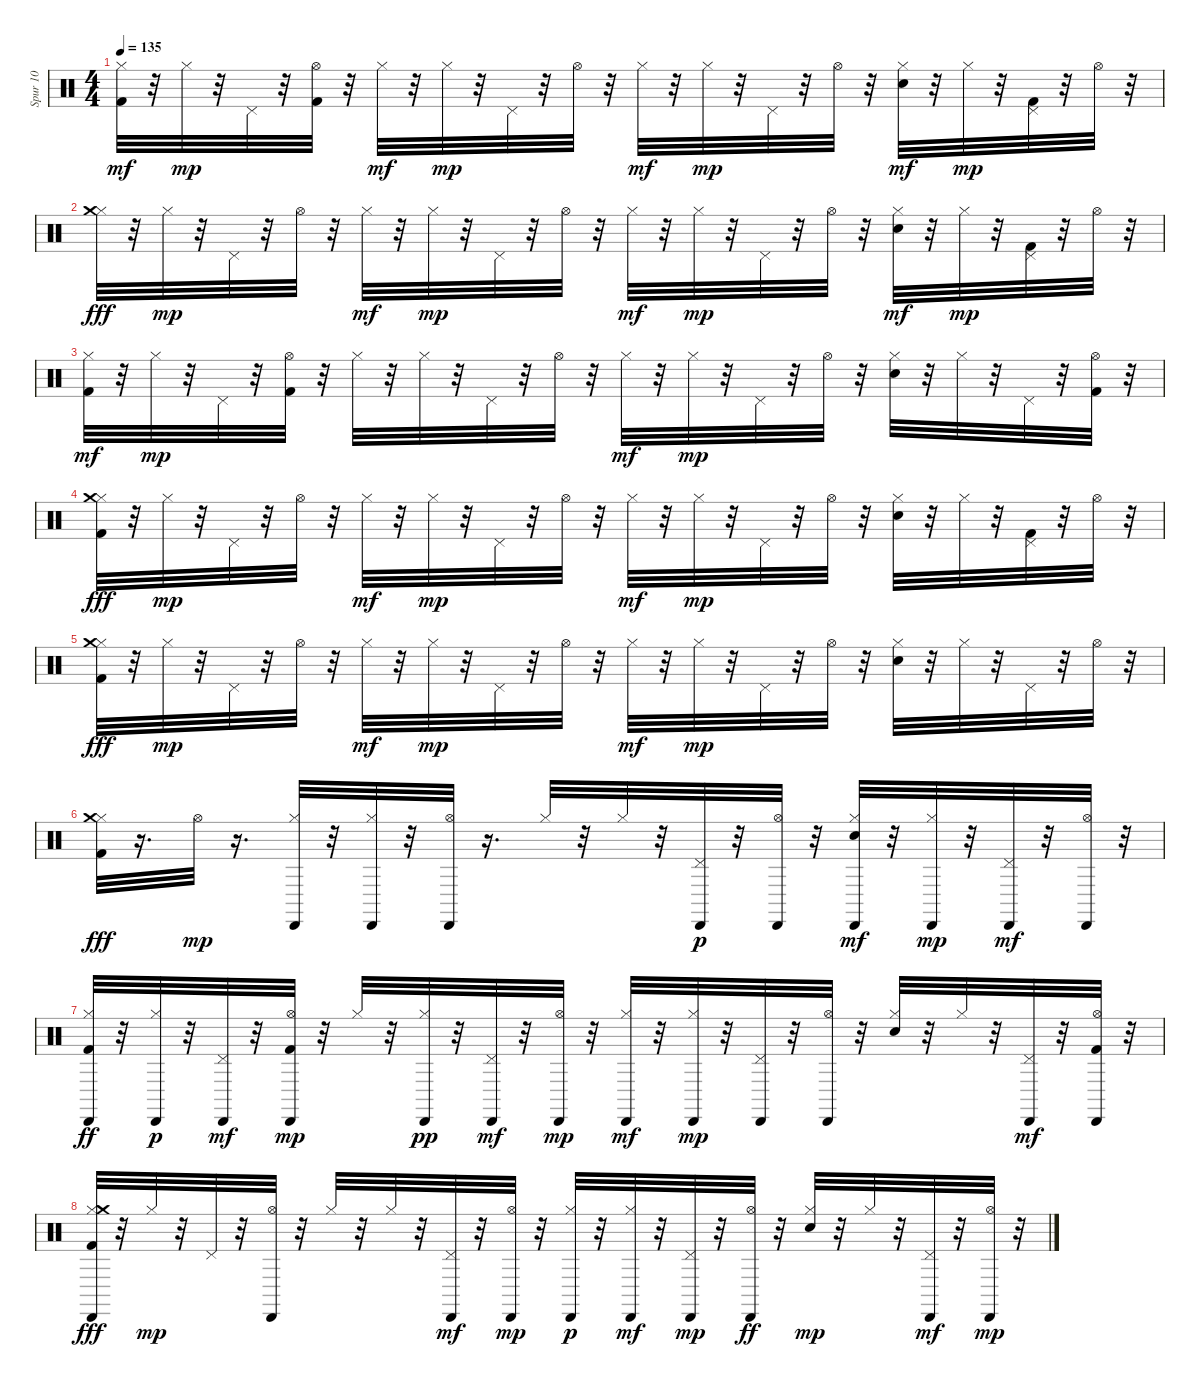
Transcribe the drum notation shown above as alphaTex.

\track ("Spur 10" "Spur 10") {instrument percussion}
\staff {score}
\articulation defaults
\ts (4 4)
\tempo 135
\clef neutral
\ks c
("Kick (hit) 2" "Hi-Hat (closed)").32{dy mf} r.32 "Hi-Hat (closed)".32{dy mp} r.32 "Pedal Hi-Hat (hit)".32 r.32 ("Kick (hit) 2" "Hi-Hat (open)").32 r.32 "Hi-Hat (closed)".32{dy mf} r.32 "Hi-Hat (closed)".32{dy mp} r.32 "Pedal Hi-Hat (hit)".32 r.32 "Hi-Hat (open)".32 r.32 "Hi-Hat (closed)".32{dy mf} r.32 "Hi-Hat (closed)".32{dy mp} r.32 "Pedal Hi-Hat (hit)".32 r.32 "Hi-Hat (open)".32 r.32 ("Hand Clap (hit)" "Hi-Hat (closed)").32{dy mf} r.32 "Hi-Hat (closed)".32{dy mp} r.32 ("Kick (hit) 2" "Pedal Hi-Hat (hit)").32 r.32 "Hi-Hat (open)".32 r.32 |
("Hi-Hat (closed)" "Crash medium (hit)").32{dy fff} r.32 "Hi-Hat (closed)".32{dy mp} r.32 "Pedal Hi-Hat (hit)".32 r.32 "Hi-Hat (open)".32 r.32 "Hi-Hat (closed)".32{dy mf} r.32 "Hi-Hat (closed)".32{dy mp} r.32 "Pedal Hi-Hat (hit)".32 r.32 "Hi-Hat (open)".32 r.32 "Hi-Hat (closed)".32{dy mf} r.32 "Hi-Hat (closed)".32{dy mp} r.32 "Pedal Hi-Hat (hit)".32 r.32 "Hi-Hat (open)".32 r.32 ("Hand Clap (hit)" "Hi-Hat (closed)").32{dy mf} r.32 "Hi-Hat (closed)".32{dy mp} r.32 ("Kick (hit) 2" "Pedal Hi-Hat (hit)").32 r.32 "Hi-Hat (open)".32 r.32 |
("Kick (hit) 2" "Hi-Hat (closed)").32{dy mf} r.32 "Hi-Hat (closed)".32{dy mp} r.32 "Pedal Hi-Hat (hit)".32 r.32 ("Kick (hit) 2" "Hi-Hat (open)").32 r.32 "Hi-Hat (closed)".32 r.32 "Hi-Hat (closed)".32 r.32 "Pedal Hi-Hat (hit)".32 r.32 "Hi-Hat (open)".32 r.32 "Hi-Hat (closed)".32{dy mf} r.32 "Hi-Hat (closed)".32{dy mp} r.32 "Pedal Hi-Hat (hit)".32 r.32 "Hi-Hat (open)".32 r.32 ("Hand Clap (hit)" "Hi-Hat (closed)").32 r.32 "Hi-Hat (closed)".32 r.32 "Pedal Hi-Hat (hit)".32 r.32 ("Kick (hit) 2" "Hi-Hat (open)").32 r.32 |
("Kick (hit) 2" "Hi-Hat (closed)" "Crash medium (hit)").32{dy fff} r.32 "Hi-Hat (closed)".32{dy mp} r.32 "Pedal Hi-Hat (hit)".32 r.32 "Hi-Hat (open)".32 r.32 "Hi-Hat (closed)".32{dy mf} r.32 "Hi-Hat (closed)".32{dy mp} r.32 "Pedal Hi-Hat (hit)".32 r.32 "Hi-Hat (open)".32 r.32 "Hi-Hat (closed)".32{dy mf} r.32 "Hi-Hat (closed)".32{dy mp} r.32 "Pedal Hi-Hat (hit)".32 r.32 "Hi-Hat (open)".32 r.32 ("Hand Clap (hit)" "Hi-Hat (closed)").32 r.32 "Hi-Hat (closed)".32 r.32 ("Kick (hit) 2" "Pedal Hi-Hat (hit)").32 r.32 "Hi-Hat (open)".32 r.32 |
("Kick (hit) 2" "Hi-Hat (closed)" "Crash medium (hit)").32{dy fff} r.32 "Hi-Hat (closed)".32{dy mp} r.32 "Pedal Hi-Hat (hit)".32 r.32 "Hi-Hat (open)".32 r.32 "Hi-Hat (closed)".32{dy mf} r.32 "Hi-Hat (closed)".32{dy mp} r.32 "Pedal Hi-Hat (hit)".32 r.32 "Hi-Hat (open)".32 r.32 "Hi-Hat (closed)".32{dy mf} r.32 "Hi-Hat (closed)".32{dy mp} r.32 "Pedal Hi-Hat (hit)".32 r.32 "Hi-Hat (open)".32 r.32 ("Hand Clap (hit)" "Hi-Hat (closed)").32 r.32 "Hi-Hat (closed)".32 r.32 "Pedal Hi-Hat (hit)".32 r.32 "Hi-Hat (open)".32 r.32 |
("Kick (hit) 2" "Hi-Hat (closed)" "Crash medium (hit)").32{dy fff} r.16{d} "Hi-Hat (open)".32{dy mp} r.16{d} ("Hi-Hat (closed)" "Cabasa (hit)").32 r.32 ("Hi-Hat (closed)" "Cabasa (hit)").32 r.32 ("Hi-Hat (open)" "Cabasa (hit)").32 r.16{d} "Hi-Hat (closed)".32 r.32 "Hi-Hat (closed)".32 r.32 ("Pedal Hi-Hat (hit)" "Cabasa (hit)").32{dy p} r.32 ("Hi-Hat (open)" "Cabasa (hit)").32 r.32 ("Hand Clap (hit)" "Hi-Hat (closed)" "Cabasa (hit)").32{dy mf} r.32 ("Hi-Hat (closed)" "Cabasa (hit)").32{dy mp} r.32 ("Pedal Hi-Hat (hit)" "Cabasa (hit)").32{dy mf} r.32 ("Hi-Hat (open)" "Cabasa (hit)").32 r.32 |
("Kick (hit) 2" "Hi-Hat (closed)" "Cabasa (hit)").32{dy ff} r.32 ("Hi-Hat (closed)" "Cabasa (hit)").32{dy p} r.32 ("Pedal Hi-Hat (hit)" "Cabasa (hit)").32{dy mf} r.32 ("Kick (hit) 2" "Hi-Hat (open)" "Cabasa (hit)").32{dy mp} r.32 "Hi-Hat (closed)".32 r.32 ("Hi-Hat (closed)" "Cabasa (hit)").32{dy pp} r.32 ("Pedal Hi-Hat (hit)" "Cabasa (hit)").32{dy mf} r.32 ("Hi-Hat (open)" "Cabasa (hit)").32{dy mp} r.32 ("Hi-Hat (closed)" "Cabasa (hit)").32{dy mf} r.32 ("Hi-Hat (closed)" "Cabasa (hit)").32{dy mp} r.32 ("Pedal Hi-Hat (hit)" "Cabasa (hit)").32 r.32 ("Hi-Hat (open)" "Cabasa (hit)").32 r.32 ("Hand Clap (hit)" "Hi-Hat (closed)").32 r.32 "Hi-Hat (closed)".32 r.32 ("Pedal Hi-Hat (hit)" "Cabasa (hit)").32{dy mf} r.32 ("Kick (hit) 2" "Hi-Hat (open)" "Cabasa (hit)").32 r.32 |
("Kick (hit) 2" "Hi-Hat (closed)" "Crash medium (hit)" "Cabasa (hit)").32{dy fff} r.32 "Hi-Hat (closed)".32{dy mp} r.32 "Pedal Hi-Hat (hit)".32 r.32 ("Hi-Hat (open)" "Cabasa (hit)").32 r.32 "Hi-Hat (closed)".32 r.32 "Hi-Hat (closed)".32 r.32 ("Pedal Hi-Hat (hit)" "Cabasa (hit)").32{dy mf} r.32 ("Hi-Hat (open)" "Cabasa (hit)").32{dy mp} r.32 ("Hi-Hat (closed)" "Cabasa (hit)").32{dy p} r.32 ("Hi-Hat (closed)" "Cabasa (hit)").32{dy mf} r.32 ("Pedal Hi-Hat (hit)" "Cabasa (hit)").32{dy mp} r.32 ("Hi-Hat (open)" "Cabasa (hit)").32{dy ff} r.32 ("Hand Clap (hit)" "Hi-Hat (closed)").32{dy mp} r.32 "Hi-Hat (closed)".32 r.32 ("Pedal Hi-Hat (hit)" "Cabasa (hit)").32{dy mf} r.32 ("Hi-Hat (open)" "Cabasa (hit)").32{dy mp} r.32
